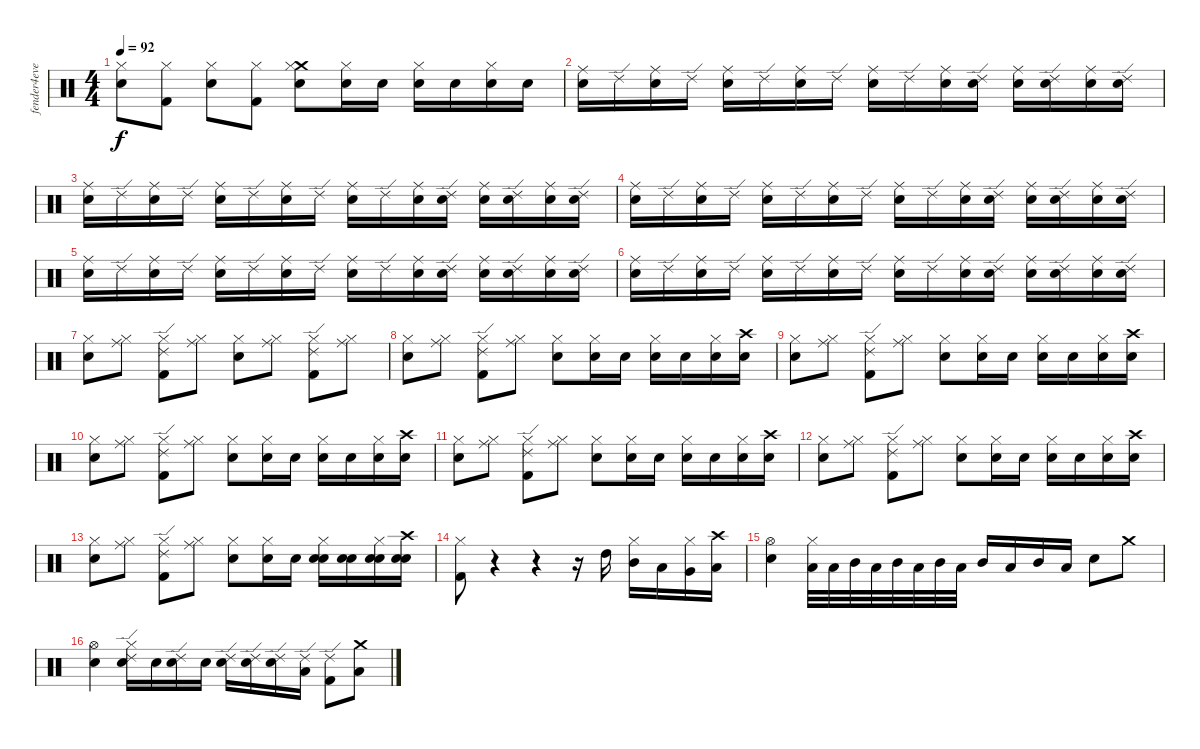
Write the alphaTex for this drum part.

\track ("fender4ever@hotmail.com" "fender4eve") {instrument percussion}
\staff {score}
\articulation defaults
\ts (4 4)
\tempo 92
\clef neutral
\ks c
("Electric Snare (hit)" "Hi-Hat (closed)").8{dy f} ("Kick (hit) 2" "Hi-Hat (closed)").8 ("Electric Snare (hit)" "Hi-Hat (closed)").8 ("Kick (hit) 2" "Hi-Hat (closed)").8 ("Electric Snare (hit)" "Crash medium (hit)" "Hi-Hat (closed)").8 ("Electric Snare (hit)" "Hi-Hat (closed)").16 "Electric Snare (hit)".16 ("Electric Snare (hit)" "Hi-Hat (closed)").16 "Electric Snare (hit)".16 ("Electric Snare (hit)" "Hi-Hat (closed)").16 "Electric Snare (hit)".16 |
("Electric Snare (hit)" "Ride (middle)").16 "Ride (edge) 2".16 ("Electric Snare (hit)" "Ride (middle)").16 "Ride (edge) 2".16 ("Electric Snare (hit)" "Ride (middle)").16 "Ride (edge) 2".16 ("Electric Snare (hit)" "Ride (middle)").16 "Ride (edge) 2".16 ("Electric Snare (hit)" "Ride (middle)").16 "Ride (edge) 2".16 ("Electric Snare (hit)" "Ride (middle)").16 ("Electric Snare (hit)" "Ride (edge) 2").16 ("Electric Snare (hit)" "Ride (middle)").16 ("Electric Snare (hit)" "Ride (edge) 2").16 ("Electric Snare (hit)" "Ride (middle)").16 ("Electric Snare (hit)" "Ride (edge) 2").16 |
("Electric Snare (hit)" "Ride (middle)").16 "Ride (edge) 2".16 ("Electric Snare (hit)" "Ride (middle)").16 "Ride (edge) 2".16 ("Electric Snare (hit)" "Ride (middle)").16 "Ride (edge) 2".16 ("Electric Snare (hit)" "Ride (middle)").16 "Ride (edge) 2".16 ("Electric Snare (hit)" "Ride (middle)").16 "Ride (edge) 2".16 ("Electric Snare (hit)" "Ride (middle)").16 ("Electric Snare (hit)" "Ride (edge) 2").16 ("Electric Snare (hit)" "Ride (middle)").16 ("Electric Snare (hit)" "Ride (edge) 2").16 ("Electric Snare (hit)" "Ride (middle)").16 ("Electric Snare (hit)" "Ride (edge) 2").16 |
("Electric Snare (hit)" "Ride (middle)").16 "Ride (edge) 2".16 ("Electric Snare (hit)" "Ride (middle)").16 "Ride (edge) 2".16 ("Electric Snare (hit)" "Ride (middle)").16 "Ride (edge) 2".16 ("Electric Snare (hit)" "Ride (middle)").16 "Ride (edge) 2".16 ("Electric Snare (hit)" "Ride (middle)").16 "Ride (edge) 2".16 ("Electric Snare (hit)" "Ride (middle)").16 ("Electric Snare (hit)" "Ride (edge) 2").16 ("Electric Snare (hit)" "Ride (middle)").16 ("Electric Snare (hit)" "Ride (edge) 2").16 ("Electric Snare (hit)" "Ride (middle)").16 ("Electric Snare (hit)" "Ride (edge) 2").16 |
("Electric Snare (hit)" "Ride (middle)").16 "Ride (edge) 2".16 ("Electric Snare (hit)" "Ride (middle)").16 "Ride (edge) 2".16 ("Electric Snare (hit)" "Ride (middle)").16 "Ride (edge) 2".16 ("Electric Snare (hit)" "Ride (middle)").16 "Ride (edge) 2".16 ("Electric Snare (hit)" "Ride (middle)").16 "Ride (edge) 2".16 ("Electric Snare (hit)" "Ride (middle)").16 ("Electric Snare (hit)" "Ride (edge) 2").16 ("Electric Snare (hit)" "Ride (middle)").16 ("Electric Snare (hit)" "Ride (edge) 2").16 ("Electric Snare (hit)" "Ride (middle)").16 ("Electric Snare (hit)" "Ride (edge) 2").16 |
("Electric Snare (hit)" "Ride (middle)").16 "Ride (edge) 2".16 ("Electric Snare (hit)" "Ride (middle)").16 "Ride (edge) 2".16 ("Electric Snare (hit)" "Ride (middle)").16 "Ride (edge) 2".16 ("Electric Snare (hit)" "Ride (middle)").16 "Ride (edge) 2".16 ("Electric Snare (hit)" "Ride (middle)").16 "Ride (edge) 2".16 ("Electric Snare (hit)" "Ride (middle)").16 ("Electric Snare (hit)" "Ride (edge) 2").16 ("Electric Snare (hit)" "Ride (middle)").16 ("Electric Snare (hit)" "Ride (edge) 2").16 ("Electric Snare (hit)" "Ride (middle)").16 ("Electric Snare (hit)" "Ride (edge) 2").16 |
("Electric Snare (hit)" "Hi-Hat (closed)").8 ("Ride (middle)" "Hi-Hat (closed)").8 ("Kick (hit) 2" "Ride (edge) 2" "Hi-Hat (closed)").8 ("Ride (middle)" "Hi-Hat (closed)").8 ("Electric Snare (hit)" "Hi-Hat (closed)").8 ("Ride (middle)" "Hi-Hat (closed)").8 ("Kick (hit) 2" "Ride (edge) 2" "Hi-Hat (closed)").8 ("Ride (middle)" "Hi-Hat (closed)").8 |
("Electric Snare (hit)" "Hi-Hat (closed)").8 ("Ride (middle)" "Hi-Hat (closed)").8 ("Kick (hit) 2" "Ride (edge) 2" "Hi-Hat (closed)").8 ("Ride (middle)" "Hi-Hat (closed)").8 ("Electric Snare (hit)" "Hi-Hat (closed)").8 ("Electric Snare (hit)" "Hi-Hat (closed)").16 "Electric Snare (hit)".16 ("Electric Snare (hit)" "Hi-Hat (closed)").16 "Electric Snare (hit)".16 ("Electric Snare (hit)" "Hi-Hat (closed)").16 ("Electric Snare (hit)" "Crash high (hit)").16 |
("Electric Snare (hit)" "Hi-Hat (closed)").8 ("Ride (middle)" "Hi-Hat (closed)").8 ("Kick (hit) 2" "Ride (edge) 2" "Hi-Hat (closed)").8 ("Ride (middle)" "Hi-Hat (closed)").8 ("Electric Snare (hit)" "Hi-Hat (closed)").8 ("Electric Snare (hit)" "Hi-Hat (closed)").16 "Electric Snare (hit)".16 ("Electric Snare (hit)" "Hi-Hat (closed)").16 "Electric Snare (hit)".16 ("Electric Snare (hit)" "Hi-Hat (closed)").16 ("Electric Snare (hit)" "Crash high (hit)").16 |
("Electric Snare (hit)" "Hi-Hat (closed)").8 ("Ride (middle)" "Hi-Hat (closed)").8 ("Kick (hit) 2" "Ride (edge) 2" "Hi-Hat (closed)").8 ("Ride (middle)" "Hi-Hat (closed)").8 ("Electric Snare (hit)" "Hi-Hat (closed)").8 ("Electric Snare (hit)" "Hi-Hat (closed)").16 "Electric Snare (hit)".16 ("Electric Snare (hit)" "Hi-Hat (closed)").16 "Electric Snare (hit)".16 ("Electric Snare (hit)" "Hi-Hat (closed)").16 ("Electric Snare (hit)" "Crash high (hit)").16 |
("Electric Snare (hit)" "Hi-Hat (closed)").8 ("Ride (middle)" "Hi-Hat (closed)").8 ("Kick (hit) 2" "Ride (edge) 2" "Hi-Hat (closed)").8 ("Ride (middle)" "Hi-Hat (closed)").8 ("Electric Snare (hit)" "Hi-Hat (closed)").8 ("Electric Snare (hit)" "Hi-Hat (closed)").16 "Electric Snare (hit)".16 ("Electric Snare (hit)" "Hi-Hat (closed)").16 "Electric Snare (hit)".16 ("Electric Snare (hit)" "Hi-Hat (closed)").16 ("Electric Snare (hit)" "Crash high (hit)").16 |
("Electric Snare (hit)" "Hi-Hat (closed)").8 ("Ride (middle)" "Hi-Hat (closed)").8 ("Kick (hit) 2" "Ride (edge) 2" "Hi-Hat (closed)").8 ("Ride (middle)" "Hi-Hat (closed)").8 ("Electric Snare (hit)" "Hi-Hat (closed)").8 ("Electric Snare (hit)" "Hi-Hat (closed)").16 "Electric Snare (hit)".16 ("Electric Snare (hit)" "Hi-Hat (closed)").16 "Electric Snare (hit)".16 ("Electric Snare (hit)" "Hi-Hat (closed)").16 ("Electric Snare (hit)" "Crash high (hit)").16 |
("Electric Snare (hit)" "Hi-Hat (closed)").8 ("Ride (middle)" "Hi-Hat (closed)").8 ("Kick (hit) 2" "Ride (edge) 2" "Hi-Hat (closed)").8 ("Ride (middle)" "Hi-Hat (closed)").8 ("Electric Snare (hit)" "Hi-Hat (closed)").8 ("Electric Snare (hit)" "Hi-Hat (closed)").16 "Electric Snare (hit)".16 ("Electric Snare (hit)" "Hi-Hat (closed)" "Snare (hit) 2").16 ("Electric Snare (hit)" "Snare (hit) 2").16 ("Electric Snare (hit)" "Hi-Hat (closed)" "Snare (hit) 2").16 ("Electric Snare (hit)" "Crash high (hit)" "Snare (hit) 2").16 |
("Kick (hit) 2" "Hi-Hat (closed)").8 r.4 r.4 r.16 "High Tom (hit)".16 ("Mid Tom (hit)" "Hi-Hat (closed)").16 "Low Tom (hit)".16 ("Very Low Tom (hit)" "Hi-Hat (closed)").16 ("Low Floor Tom (hit)" "Crash high (hit)").16 |
("Electric Snare (hit)" "Hi-Hat (open)").4 ("Low Floor Tom (hit)" "Hi-Hat (closed)").32 "Low Tom (hit)".32 "Mid Tom (hit)".32 "Low Tom (hit)".32 "Mid Tom (hit)".32 "Low Tom (hit)".32 "Mid Tom (hit)".32 "Low Tom (hit)".32 "Mid Tom (hit)".16 "Low Tom (hit)".16 "Mid Tom (hit)".16 "Low Floor Tom (hit)".16 "Electric Snare (hit)".8 "Crash medium (hit)".8 |
("Electric Snare (hit)" "Hi-Hat (open)").4 ("Electric Snare (hit)" "Ride (edge) 2" "Hi-Hat (closed)").16 "Electric Snare (hit)".16 ("Electric Snare (hit)" "Ride (edge) 2").16 "Electric Snare (hit)".16 ("Electric Snare (hit)" "Ride (edge) 2").16 ("Electric Snare (hit)" "Ride (edge) 2").16 ("Electric Snare (hit)" "Ride (edge) 2").16 ("Low Floor Tom (hit)" "Ride (edge) 2").16 ("Kick (hit) 2" "Ride (edge) 2").8 ("Crash medium (hit)" "Low Floor Tom (hit)").8
